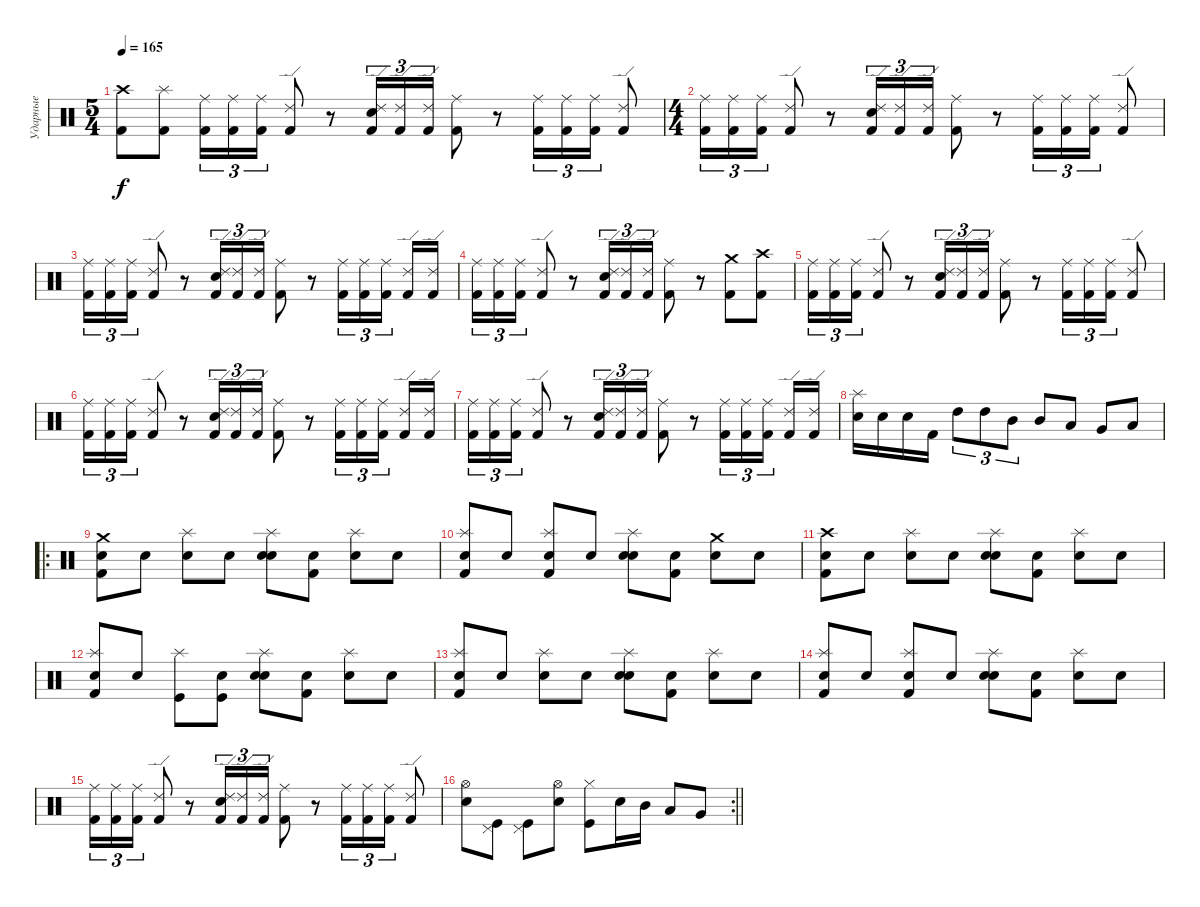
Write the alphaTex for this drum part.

\track ("Ударные" "Ударные") {instrument percussion}
\staff {score}
\articulation defaults
\ts (5 4)
\tempo 165
\clef neutral
\ks c
("Crash high (hit)" "Kick (hit) 2").8{dy f} ("Splash (hit)" "Kick (hit) 2").8 ("Ride (middle)" "Kick (hit) 2").16{tu (3 2)} ("Ride (middle)" "Kick (hit) 2").16{tu (3 2)} ("Ride (middle)" "Kick (hit) 2").16{tu (3 2)} ("Ride (edge) 2" "Kick (hit) 2").8 r.8 ("Snare (hit) 2" "Ride (edge) 2" "Kick (hit) 2").16{tu (3 2)} ("Ride (edge) 2" "Kick (hit) 2").16{tu (3 2)} ("Ride (edge) 2" "Kick (hit) 2").16{tu (3 2)} ("Ride (middle)" "Kick (hit) 2").8 r.8 ("Ride (middle)" "Kick (hit) 2").16{tu (3 2)} ("Ride (middle)" "Kick (hit) 2").16{tu (3 2)} ("Ride (middle)" "Kick (hit) 2").16{tu (3 2)} ("Ride (edge) 2" "Kick (hit) 2").8 |
\ts (4 4)
("Ride (middle)" "Kick (hit) 2").16{tu (3 2)} ("Ride (middle)" "Kick (hit) 2").16{tu (3 2)} ("Ride (middle)" "Kick (hit) 2").16{tu (3 2)} ("Ride (edge) 2" "Kick (hit) 2").8 r.8 ("Snare (hit) 2" "Ride (edge) 2" "Kick (hit) 2").16{tu (3 2)} ("Ride (edge) 2" "Kick (hit) 2").16{tu (3 2)} ("Ride (edge) 2" "Kick (hit) 2").16{tu (3 2)} ("Ride (middle)" "Kick (hit) 2").8 r.8 ("Ride (middle)" "Kick (hit) 2").16{tu (3 2)} ("Ride (middle)" "Kick (hit) 2").16{tu (3 2)} ("Ride (middle)" "Kick (hit) 2").16{tu (3 2)} ("Ride (edge) 2" "Kick (hit) 2").8 |
("Ride (middle)" "Kick (hit) 2").16{tu (3 2)} ("Ride (middle)" "Kick (hit) 2").16{tu (3 2)} ("Ride (middle)" "Kick (hit) 2").16{tu (3 2)} ("Ride (edge) 2" "Kick (hit) 2").8 r.8 ("Snare (hit) 2" "Ride (edge) 2" "Kick (hit) 2").16{tu (3 2)} ("Ride (edge) 2" "Kick (hit) 2").16{tu (3 2)} ("Ride (edge) 2" "Kick (hit) 2").16{tu (3 2)} ("Ride (middle)" "Kick (hit) 2").8 r.8 ("Ride (middle)" "Kick (hit) 2").16{tu (3 2)} ("Ride (middle)" "Kick (hit) 2").16{tu (3 2)} ("Ride (middle)" "Kick (hit) 2").16{tu (3 2) beam splitsecondary} ("Ride (edge) 2" "Kick (hit) 2").16 ("Ride (edge) 2" "Kick (hit) 2").16 |
("Ride (middle)" "Kick (hit) 2").16{tu (3 2)} ("Ride (middle)" "Kick (hit) 2").16{tu (3 2)} ("Ride (middle)" "Kick (hit) 2").16{tu (3 2)} ("Ride (edge) 2" "Kick (hit) 2").8 r.8 ("Snare (hit) 2" "Ride (edge) 2" "Kick (hit) 2").16{tu (3 2)} ("Ride (edge) 2" "Kick (hit) 2").16{tu (3 2)} ("Ride (edge) 2" "Kick (hit) 2").16{tu (3 2)} ("Ride (middle)" "Kick (hit) 2").8 r.8 ("Crash medium (hit)" "Kick (hit) 2").8 ("Crash high (hit)" "Kick (hit) 2").8 |
("Ride (middle)" "Kick (hit) 2").16{tu (3 2)} ("Ride (middle)" "Kick (hit) 2").16{tu (3 2)} ("Ride (middle)" "Kick (hit) 2").16{tu (3 2)} ("Ride (edge) 2" "Kick (hit) 2").8 r.8 ("Snare (hit) 2" "Ride (edge) 2" "Kick (hit) 2").16{tu (3 2)} ("Ride (edge) 2" "Kick (hit) 2").16{tu (3 2)} ("Ride (edge) 2" "Kick (hit) 2").16{tu (3 2)} ("Ride (middle)" "Kick (hit) 2").8 r.8 ("Ride (middle)" "Kick (hit) 2").16{tu (3 2)} ("Ride (middle)" "Kick (hit) 2").16{tu (3 2)} ("Ride (middle)" "Kick (hit) 2").16{tu (3 2)} ("Ride (edge) 2" "Kick (hit) 2").8 |
("Ride (middle)" "Kick (hit) 2").16{tu (3 2)} ("Ride (middle)" "Kick (hit) 2").16{tu (3 2)} ("Ride (middle)" "Kick (hit) 2").16{tu (3 2)} ("Ride (edge) 2" "Kick (hit) 2").8 r.8 ("Snare (hit) 2" "Ride (edge) 2" "Kick (hit) 2").16{tu (3 2)} ("Ride (edge) 2" "Kick (hit) 2").16{tu (3 2)} ("Ride (edge) 2" "Kick (hit) 2").16{tu (3 2)} ("Ride (middle)" "Kick (hit) 2").8 r.8 ("Ride (middle)" "Kick (hit) 2").16{tu (3 2)} ("Ride (middle)" "Kick (hit) 2").16{tu (3 2)} ("Ride (middle)" "Kick (hit) 2").16{tu (3 2) beam splitsecondary} ("Ride (edge) 2" "Kick (hit) 2").16 ("Ride (edge) 2" "Kick (hit) 2").16 |
("Ride (middle)" "Kick (hit) 2").16{tu (3 2)} ("Ride (middle)" "Kick (hit) 2").16{tu (3 2)} ("Ride (middle)" "Kick (hit) 2").16{tu (3 2)} ("Ride (edge) 2" "Kick (hit) 2").8 r.8 ("Snare (hit) 2" "Ride (edge) 2" "Kick (hit) 2").16{tu (3 2)} ("Ride (edge) 2" "Kick (hit) 2").16{tu (3 2)} ("Ride (edge) 2" "Kick (hit) 2").16{tu (3 2)} ("Ride (middle)" "Kick (hit) 2").8 r.8 ("Ride (middle)" "Kick (hit) 2").16{tu (3 2)} ("Ride (middle)" "Kick (hit) 2").16{tu (3 2)} ("Ride (middle)" "Kick (hit) 2").16{tu (3 2) beam splitsecondary} ("Ride (edge) 2" "Kick (hit) 2").16 ("Ride (edge) 2" "Kick (hit) 2").16 |
("Snare (hit) 2" "Splash (hit)").16 "Snare (hit) 2".16 "Snare (hit) 2".16 "Kick (hit) 2".16 "High Tom (hit)".8{tu (3 2)} "High Tom (hit)".8{tu (3 2)} "Mid Tom (hit)".8{tu (3 2)} "Mid Tom (hit)".8 "Low Tom (hit)".8 "Very Low Tom (hit)".8 "Low Floor Tom (hit)".8 |
\ro
("Crash medium (hit)" "Kick (hit) 2" "Snare (hit)").8 "Snare (hit)".8 ("Splash (hit)" "Snare (hit)").8 "Snare (hit)".8 ("Snare (hit) 2" "Splash (hit)" "Snare (hit)").8 ("Kick (hit) 2" "Snare (hit)").8 ("Splash (hit)" "Snare (hit)").8 "Snare (hit)".8 |
("Splash (hit)" "Kick (hit) 2" "Snare (hit)").8 "Snare (hit)".8 ("Splash (hit)" "Kick (hit) 2" "Snare (hit)").8 "Snare (hit)".8 ("Snare (hit) 2" "Splash (hit)" "Snare (hit)").8 ("Kick (hit) 2" "Snare (hit)").8 ("Crash medium (hit)" "Snare (hit)").8 "Snare (hit)".8 |
("Crash high (hit)" "Kick (hit) 2" "Snare (hit)").8 "Snare (hit)".8 ("Splash (hit)" "Snare (hit)").8 "Snare (hit)".8 ("Snare (hit) 2" "Splash (hit)" "Snare (hit)").8 ("Kick (hit) 2" "Snare (hit)").8 ("Splash (hit)" "Snare (hit)").8 "Snare (hit)".8 |
("Splash (hit)" "Kick (hit) 2" "Snare (hit)").8 "Snare (hit)".8 ("Splash (hit)" "Kick (hit)").8 ("Kick (hit)" "Snare (hit)").8 ("Snare (hit) 2" "Splash (hit)" "Snare (hit)").8 ("Kick (hit) 2" "Snare (hit)").8 ("Splash (hit)" "Snare (hit)").8 "Snare (hit)".8 |
("Splash (hit)" "Kick (hit) 2" "Snare (hit)").8 "Snare (hit)".8 ("Splash (hit)" "Snare (hit)").8 "Snare (hit)".8 ("Snare (hit) 2" "Splash (hit)" "Snare (hit)").8 ("Kick (hit) 2" "Snare (hit)").8 ("Splash (hit)" "Snare (hit)").8 "Snare (hit)".8 |
("Splash (hit)" "Kick (hit) 2" "Snare (hit)").8 "Snare (hit)".8 ("Splash (hit)" "Kick (hit) 2" "Snare (hit)").8 "Snare (hit)".8 ("Snare (hit) 2" "Splash (hit)" "Snare (hit)").8 ("Kick (hit) 2" "Snare (hit)").8 ("Splash (hit)" "Snare (hit)").8 "Snare (hit)".8 |
("Ride (middle)" "Kick (hit) 2").16{tu (3 2)} ("Ride (middle)" "Kick (hit) 2").16{tu (3 2)} ("Ride (middle)" "Kick (hit) 2").16{tu (3 2)} ("Ride (edge) 2" "Kick (hit) 2").8 r.8 ("Snare (hit) 2" "Ride (edge) 2" "Kick (hit) 2").16{tu (3 2)} ("Ride (edge) 2" "Kick (hit) 2").16{tu (3 2)} ("Ride (edge) 2" "Kick (hit) 2").16{tu (3 2)} ("Ride (middle)" "Kick (hit) 2").8 r.8 ("Ride (middle)" "Kick (hit) 2").16{tu (3 2)} ("Ride (middle)" "Kick (hit) 2").16{tu (3 2)} ("Ride (middle)" "Kick (hit) 2").16{tu (3 2)} ("Ride (edge) 2" "Kick (hit) 2").8 |
\rc 2
\barLineRight lightlight
("Snare (hit) 2" "Hi-Hat (open)").8 ("Pedal Hi-Hat (hit)" "Kick (hit)").8 ("Pedal Hi-Hat (hit)" "Kick (hit)").8 ("Snare (hit) 2" "Hi-Hat (open)").8 ("Hi-Hat (closed)" "Kick (hit)").8 "Snare (hit) 2".16 "Mid Tom (hit)".16 "Low Tom (hit)".8 "Very Low Tom (hit)".8
